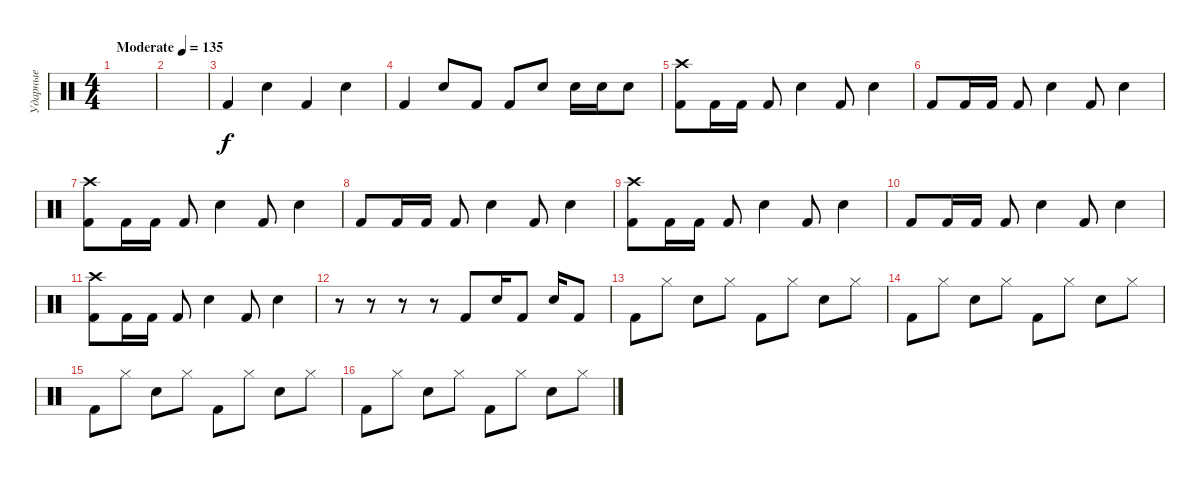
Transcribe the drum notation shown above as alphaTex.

\track ("Ударные" "Ударные") {instrument percussion}
\staff {score}
\articulation defaults
\ts (4 4)
\tempo (135 "Moderate")
\clef neutral
\ks c
|
|
"Kick (hit) 2".4 "Snare (hit) 2".4 "Kick (hit) 2".4 "Snare (hit) 2".4 |
"Kick (hit) 2".4 "Snare (hit) 2".8 "Kick (hit) 2".8 "Kick (hit) 2".8 "Snare (hit) 2".8 "Electric Snare (hit)".16 "Electric Snare (hit)".16 "Electric Snare (hit)".8 |
("Crash high (hit)" "Kick (hit) 2").8 "Kick (hit) 2".16 "Kick (hit) 2".16 "Kick (hit) 2".8 "Electric Snare (hit)".4 "Kick (hit) 2".8 "Electric Snare (hit)".4 |
"Kick (hit) 2".8 "Kick (hit) 2".16 "Kick (hit) 2".16 "Kick (hit) 2".8 "Electric Snare (hit)".4 "Kick (hit) 2".8 "Electric Snare (hit)".4 |
("Crash high (hit)" "Kick (hit) 2").8 "Kick (hit) 2".16 "Kick (hit) 2".16 "Kick (hit) 2".8 "Electric Snare (hit)".4 "Kick (hit) 2".8 "Electric Snare (hit)".4 |
"Kick (hit) 2".8 "Kick (hit) 2".16 "Kick (hit) 2".16 "Kick (hit) 2".8 "Electric Snare (hit)".4 "Kick (hit) 2".8 "Electric Snare (hit)".4 |
("Crash high (hit)" "Kick (hit) 2").8 "Kick (hit) 2".16 "Kick (hit) 2".16 "Kick (hit) 2".8 "Electric Snare (hit)".4 "Kick (hit) 2".8 "Electric Snare (hit)".4 |
"Kick (hit) 2".8 "Kick (hit) 2".16 "Kick (hit) 2".16 "Kick (hit) 2".8 "Electric Snare (hit)".4 "Kick (hit) 2".8 "Electric Snare (hit)".4 |
("Crash high (hit)" "Kick (hit) 2").8 "Kick (hit) 2".16 "Kick (hit) 2".16 "Kick (hit) 2".8 "Electric Snare (hit)".4 "Kick (hit) 2".8 "Electric Snare (hit)".4 |
r.8 r.8 r.8 r.8 "Kick (hit) 2".8 "Snare (hit) 2".16 "Kick (hit) 2".8 "Electric Snare (hit)".16 "Kick (hit) 2".8 |
"Kick (hit) 2".8 "Hi-Hat (closed)".8 "Snare (hit) 2".8 "Hi-Hat (closed)".8 "Kick (hit) 2".8 "Hi-Hat (closed)".8 "Snare (hit) 2".8 "Hi-Hat (closed)".8 |
"Kick (hit) 2".8 "Hi-Hat (closed)".8 "Snare (hit) 2".8 "Hi-Hat (closed)".8 "Kick (hit) 2".8 "Hi-Hat (closed)".8 "Snare (hit) 2".8 "Hi-Hat (closed)".8 |
"Kick (hit) 2".8 "Hi-Hat (closed)".8 "Snare (hit) 2".8 "Hi-Hat (closed)".8 "Kick (hit) 2".8 "Hi-Hat (closed)".8 "Snare (hit) 2".8 "Hi-Hat (closed)".8 |
"Kick (hit) 2".8 "Hi-Hat (closed)".8 "Snare (hit) 2".8 "Hi-Hat (closed)".8 "Kick (hit) 2".8 "Hi-Hat (closed)".8 "Snare (hit) 2".8 "Hi-Hat (closed)".8
